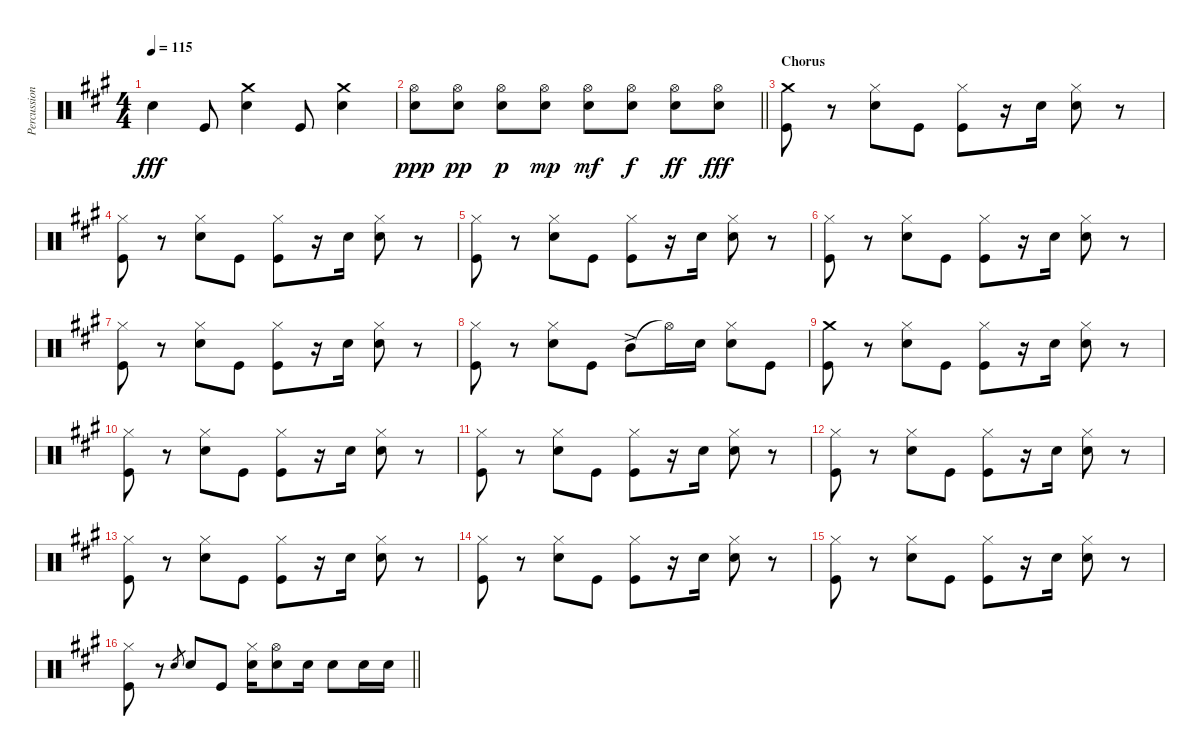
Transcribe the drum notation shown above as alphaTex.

\track ("Percussion" "Percussion") {instrument percussion}
\staff {score}
\articulation defaults
\ts (4 4)
\tempo 115
\clef neutral
\ks a "Electric Snare (hit)".4{dy fff} "Kick (hit)".8
("Crash medium (hit)" "Electric Snare (hit)").4 "Kick (hit)".8 ("Crash medium (hit)" "Electric Snare (hit)").4 |
\barLineRight lightlight
("Electric Snare (hit)" "Hi-Hat (open)").8{dy ppp} ("Electric Snare (hit)" "Hi-Hat (open)").8{dy pp} ("Electric Snare (hit)" "Hi-Hat (open)").8{dy p} ("Electric Snare (hit)" "Hi-Hat (open)").8{dy mp} ("Electric Snare (hit)" "Hi-Hat (open)").8{dy mf} ("Electric Snare (hit)" "Hi-Hat (open)").8{dy f} ("Electric Snare (hit)" "Hi-Hat (open)").8{dy ff} ("Electric Snare (hit)" "Hi-Hat (open)").8{dy fff} |
\section ("" "Chorus")
("Kick (hit)" "Crash medium (hit)").8 r.8 ("Electric Snare (hit)" "Hi-Hat (closed)").8 "Kick (hit)".8 ("Kick (hit)" "Hi-Hat (closed)").8 r.16 "Electric Snare (hit)".16 ("Electric Snare (hit)" "Hi-Hat (closed)").8 r.8 |
("Kick (hit)" "Hi-Hat (closed)").8 r.8 ("Electric Snare (hit)" "Hi-Hat (closed)").8 "Kick (hit)".8 ("Kick (hit)" "Hi-Hat (closed)").8 r.16 "Electric Snare (hit)".16 ("Electric Snare (hit)" "Hi-Hat (closed)").8 r.8 |
("Kick (hit)" "Hi-Hat (closed)").8 r.8 ("Electric Snare (hit)" "Hi-Hat (closed)").8 "Kick (hit)".8 ("Kick (hit)" "Hi-Hat (closed)").8 r.16 "Electric Snare (hit)".16 ("Electric Snare (hit)" "Hi-Hat (closed)").8 r.8 |
("Kick (hit)" "Hi-Hat (closed)").8 r.8 ("Electric Snare (hit)" "Hi-Hat (closed)").8 "Kick (hit)".8 ("Kick (hit)" "Hi-Hat (closed)").8 r.16 "Electric Snare (hit)".16 ("Electric Snare (hit)" "Hi-Hat (closed)").8 r.8 |
("Kick (hit)" "Hi-Hat (closed)").8 r.8 ("Electric Snare (hit)" "Hi-Hat (closed)").8 "Kick (hit)".8 ("Kick (hit)" "Hi-Hat (closed)").8 r.16 "Electric Snare (hit)".16 ("Electric Snare (hit)" "Hi-Hat (closed)").8 r.8 |
("Kick (hit)" "Hi-Hat (closed)").8 r.8 ("Electric Snare (hit)" "Hi-Hat (closed)").8 "Kick (hit)".8 "Mid Tom (hit)"{ac}.8 "Hi-Hat (open)"{t}.16 "Electric Snare (hit)".16 ("Electric Snare (hit)" "Hi-Hat (closed)").8 "Kick (hit)".8 |
("Kick (hit)" "Crash medium (hit)").8 r.8 ("Electric Snare (hit)" "Hi-Hat (closed)").8 "Kick (hit)".8 ("Kick (hit)" "Hi-Hat (closed)").8 r.16 "Electric Snare (hit)".16 ("Electric Snare (hit)" "Hi-Hat (closed)").8 r.8 |
("Kick (hit)" "Hi-Hat (closed)").8 r.8 ("Electric Snare (hit)" "Hi-Hat (closed)").8 "Kick (hit)".8 ("Kick (hit)" "Hi-Hat (closed)").8 r.16 "Electric Snare (hit)".16 ("Electric Snare (hit)" "Hi-Hat (closed)").8 r.8 |
("Kick (hit)" "Hi-Hat (closed)").8 r.8 ("Electric Snare (hit)" "Hi-Hat (closed)").8 "Kick (hit)".8 ("Kick (hit)" "Hi-Hat (closed)").8 r.16 "Electric Snare (hit)".16 ("Electric Snare (hit)" "Hi-Hat (closed)").8 r.8 |
("Kick (hit)" "Hi-Hat (closed)").8 r.8 ("Electric Snare (hit)" "Hi-Hat (closed)").8 "Kick (hit)".8 ("Kick (hit)" "Hi-Hat (closed)").8 r.16 "Electric Snare (hit)".16 ("Electric Snare (hit)" "Hi-Hat (closed)").8 r.8 |
("Kick (hit)" "Hi-Hat (closed)").8 r.8 ("Electric Snare (hit)" "Hi-Hat (closed)").8 "Kick (hit)".8 ("Kick (hit)" "Hi-Hat (closed)").8 r.16 "Electric Snare (hit)".16 ("Electric Snare (hit)" "Hi-Hat (closed)").8 r.8 |
("Kick (hit)" "Hi-Hat (closed)").8 r.8 ("Electric Snare (hit)" "Hi-Hat (closed)").8 "Kick (hit)".8 ("Kick (hit)" "Hi-Hat (closed)").8 r.16 "Electric Snare (hit)".16 ("Electric Snare (hit)" "Hi-Hat (closed)").8 r.8 |
("Kick (hit)" "Hi-Hat (closed)").8 r.8 ("Electric Snare (hit)" "Hi-Hat (closed)").8 "Kick (hit)".8 ("Kick (hit)" "Hi-Hat (closed)").8 r.16 "Electric Snare (hit)".16 ("Electric Snare (hit)" "Hi-Hat (closed)").8 r.8 |
\barLineRight lightlight
("Kick (hit)" "Hi-Hat (closed)").8 r.8 "Electric Snare (hit)".8{gr} "Electric Snare (hit)".8 "Kick (hit)".8 ("Electric Snare (hit)" "Hi-Hat (closed)").16 ("Electric Snare (hit)" "Hi-Hat (open)").8 "Electric Snare (hit)".16 "Electric Snare (hit)".8 "Electric Snare (hit)".16 "Electric Snare (hit)".16
